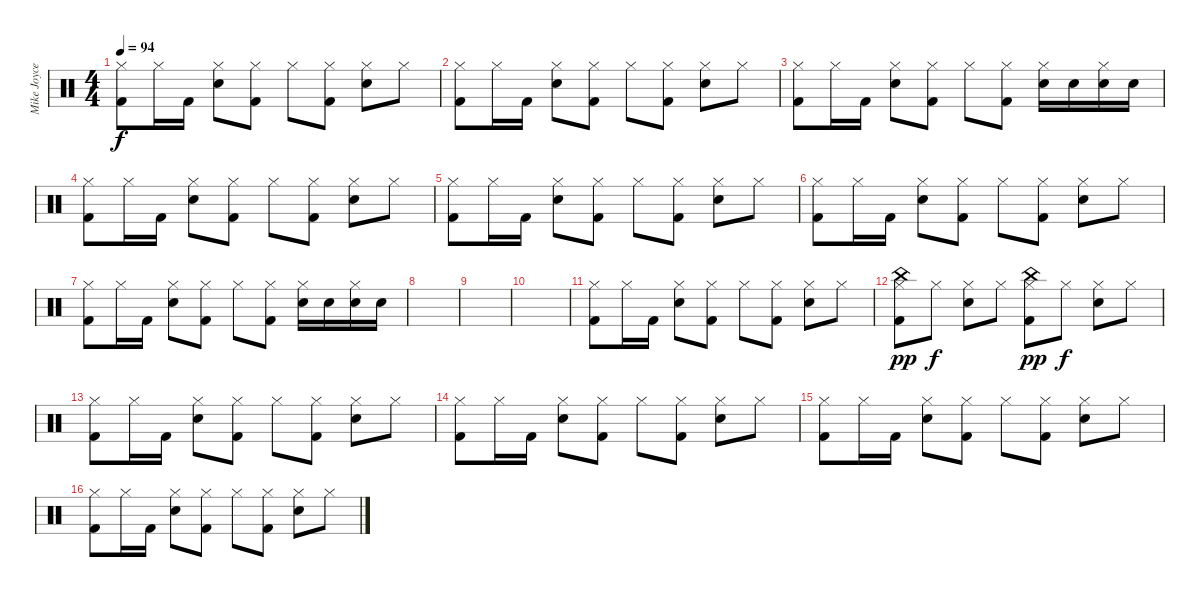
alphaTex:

\track ("Mike Joyce" "Mike Joyce") {instrument percussion}
\staff {score}
\articulation defaults
\ts (4 4)
\tempo 94
\clef neutral
\ks c
("Hi-Hat (closed)" "Kick (hit) 2").8{dy f} "Hi-Hat (closed)".16 "Kick (hit) 2".16 ("Hi-Hat (closed)" "Snare (hit) 2").8 ("Hi-Hat (closed)" "Kick (hit) 2").8 "Hi-Hat (closed)".8 ("Hi-Hat (closed)" "Kick (hit) 2").8 ("Hi-Hat (closed)" "Snare (hit) 2").8 "Hi-Hat (closed)".8 |
("Hi-Hat (closed)" "Kick (hit) 2").8 "Hi-Hat (closed)".16 "Kick (hit) 2".16 ("Hi-Hat (closed)" "Snare (hit) 2").8 ("Hi-Hat (closed)" "Kick (hit) 2").8 "Hi-Hat (closed)".8 ("Hi-Hat (closed)" "Kick (hit) 2").8 ("Hi-Hat (closed)" "Snare (hit) 2").8 "Hi-Hat (closed)".8 |
("Hi-Hat (closed)" "Kick (hit) 2").8 "Hi-Hat (closed)".16 "Kick (hit) 2".16 ("Hi-Hat (closed)" "Snare (hit) 2").8 ("Hi-Hat (closed)" "Kick (hit) 2").8 "Hi-Hat (closed)".8 ("Hi-Hat (closed)" "Kick (hit) 2").8 ("Hi-Hat (closed)" "Snare (hit) 2").16 "Snare (hit) 2".16 ("Hi-Hat (closed)" "Snare (hit) 2").16 "Snare (hit) 2".16 |
("Hi-Hat (closed)" "Kick (hit) 2").8 "Hi-Hat (closed)".16 "Kick (hit) 2".16 ("Hi-Hat (closed)" "Snare (hit) 2").8 ("Hi-Hat (closed)" "Kick (hit) 2").8 "Hi-Hat (closed)".8 ("Hi-Hat (closed)" "Kick (hit) 2").8 ("Hi-Hat (closed)" "Snare (hit) 2").8 "Hi-Hat (closed)".8 |
("Hi-Hat (closed)" "Kick (hit) 2").8 "Hi-Hat (closed)".16 "Kick (hit) 2".16 ("Hi-Hat (closed)" "Snare (hit) 2").8 ("Hi-Hat (closed)" "Kick (hit) 2").8 "Hi-Hat (closed)".8 ("Hi-Hat (closed)" "Kick (hit) 2").8 ("Hi-Hat (closed)" "Snare (hit) 2").8 "Hi-Hat (closed)".8 |
("Hi-Hat (closed)" "Kick (hit) 2").8 "Hi-Hat (closed)".16 "Kick (hit) 2".16 ("Hi-Hat (closed)" "Snare (hit) 2").8 ("Hi-Hat (closed)" "Kick (hit) 2").8 "Hi-Hat (closed)".8 ("Hi-Hat (closed)" "Kick (hit) 2").8 ("Hi-Hat (closed)" "Snare (hit) 2").8 "Hi-Hat (closed)".8 |
("Hi-Hat (closed)" "Kick (hit) 2").8 "Hi-Hat (closed)".16 "Kick (hit) 2".16 ("Hi-Hat (closed)" "Snare (hit) 2").8 ("Hi-Hat (closed)" "Kick (hit) 2").8 "Hi-Hat (closed)".8 ("Hi-Hat (closed)" "Kick (hit) 2").8 ("Hi-Hat (closed)" "Snare (hit) 2").16 "Snare (hit) 2".16 ("Hi-Hat (closed)" "Snare (hit) 2").16 "Snare (hit) 2".16 |
|
|
|
("Hi-Hat (closed)" "Kick (hit) 2").8 "Hi-Hat (closed)".16 "Kick (hit) 2".16 ("Hi-Hat (closed)" "Snare (hit) 2").8 ("Hi-Hat (closed)" "Kick (hit) 2").8 "Hi-Hat (closed)".8 ("Hi-Hat (closed)" "Kick (hit) 2").8 ("Hi-Hat (closed)" "Snare (hit) 2").8 "Hi-Hat (closed)".8 |
("China (hit)" "Hi-Hat (closed)" "Kick (hit) 2").8{dy pp} "Hi-Hat (closed)".8{dy f} ("Hi-Hat (closed)" "Snare (hit) 2").8 "Hi-Hat (closed)".8 ("China (hit)" "Hi-Hat (closed)" "Kick (hit) 2").8{dy pp} "Hi-Hat (closed)".8{dy f} ("Hi-Hat (closed)" "Snare (hit) 2").8 "Hi-Hat (closed)".8 |
("Hi-Hat (closed)" "Kick (hit) 2").8 "Hi-Hat (closed)".16 "Kick (hit) 2".16 ("Hi-Hat (closed)" "Snare (hit) 2").8 ("Hi-Hat (closed)" "Kick (hit) 2").8 "Hi-Hat (closed)".8 ("Hi-Hat (closed)" "Kick (hit) 2").8 ("Hi-Hat (closed)" "Snare (hit) 2").8 "Hi-Hat (closed)".8 |
("Hi-Hat (closed)" "Kick (hit) 2").8 "Hi-Hat (closed)".16 "Kick (hit) 2".16 ("Hi-Hat (closed)" "Snare (hit) 2").8 ("Hi-Hat (closed)" "Kick (hit) 2").8 "Hi-Hat (closed)".8 ("Hi-Hat (closed)" "Kick (hit) 2").8 ("Hi-Hat (closed)" "Snare (hit) 2").8 "Hi-Hat (closed)".8 |
("Hi-Hat (closed)" "Kick (hit) 2").8 "Hi-Hat (closed)".16 "Kick (hit) 2".16 ("Hi-Hat (closed)" "Snare (hit) 2").8 ("Hi-Hat (closed)" "Kick (hit) 2").8 "Hi-Hat (closed)".8 ("Hi-Hat (closed)" "Kick (hit) 2").8 ("Hi-Hat (closed)" "Snare (hit) 2").8 "Hi-Hat (closed)".8 |
("Hi-Hat (closed)" "Kick (hit) 2").8 "Hi-Hat (closed)".16 "Kick (hit) 2".16 ("Hi-Hat (closed)" "Snare (hit) 2").8 ("Hi-Hat (closed)" "Kick (hit) 2").8 "Hi-Hat (closed)".8 ("Hi-Hat (closed)" "Kick (hit) 2").8 ("Hi-Hat (closed)" "Snare (hit) 2").8 "Hi-Hat (closed)".8
